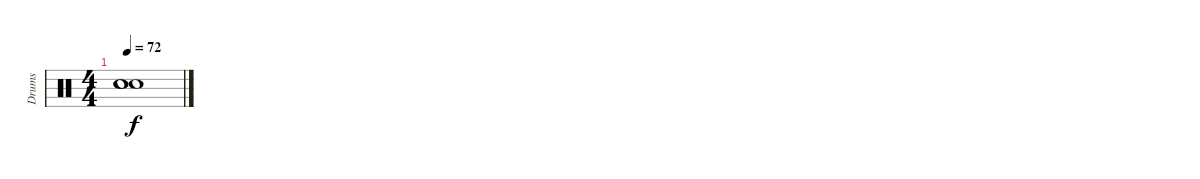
\track ("Drums" "Drums") {instrument percussion}
\staff {score}
\articulation defaults
\ts (4 4)
\tempo 72
\clef neutral
\ks c
("Snare (hit)"{t} "Snare (hit)"{t} "Snare (hit)"{t}).1{dy f}
